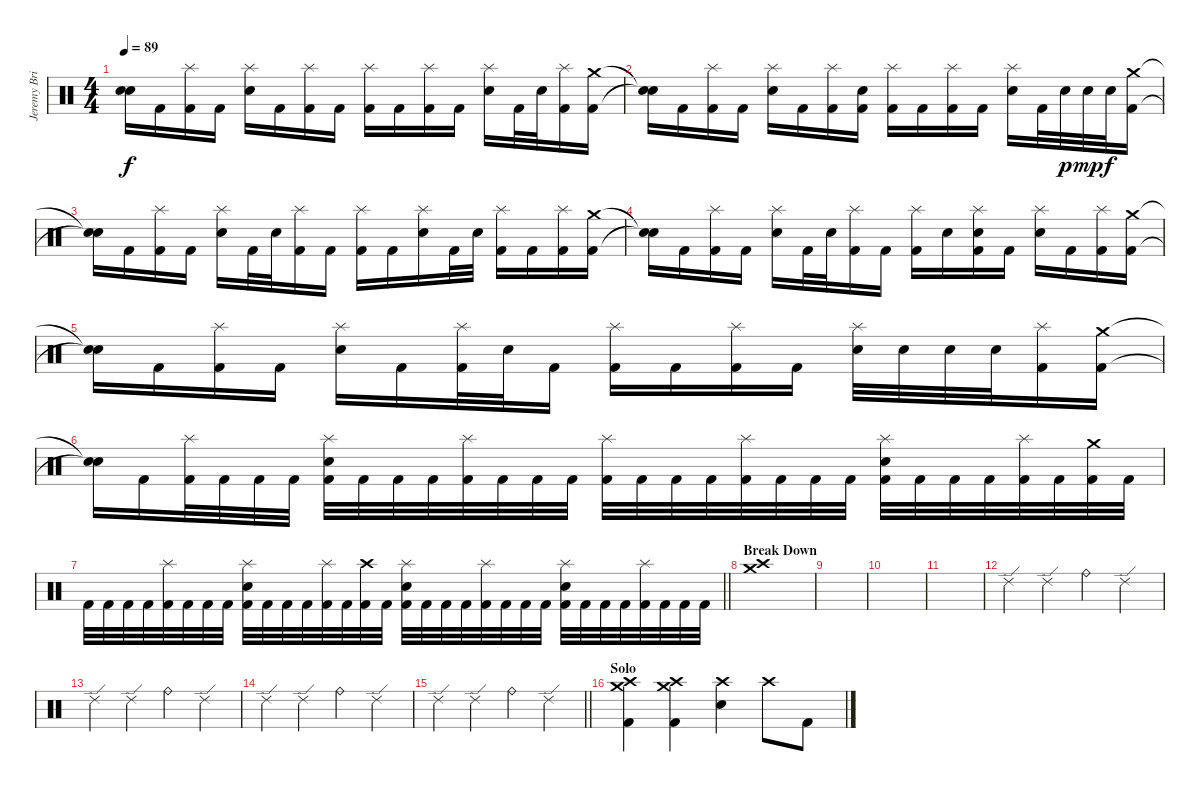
\track ("Jeremy Brian [Drums]" "Jeremy Bri") {instrument percussion}
\staff {score}
\articulation defaults
\ts (4 4)
\tempo 89
\clef neutral
\ks c
("Snare (hit)"{t} "Snare (hit)"{t}).16{dy f} "Kick (hit) 2".16 ("Splash (hit)" "Kick (hit) 2").16 "Kick (hit) 2".16 ("Splash (hit)" "Electric Snare (hit)").16 "Kick (hit) 2".16 ("Splash (hit)" "Kick (hit) 2").16 "Kick (hit) 2".16 ("Splash (hit)" "Kick (hit) 2").16 "Kick (hit) 2".16 ("Splash (hit)" "Kick (hit) 2").16 "Kick (hit) 2".16 ("Splash (hit)" "Electric Snare (hit)").16 "Kick (hit) 2".32 "Electric Snare (hit)".32 ("Splash (hit)" "Kick (hit) 2").16 ("Crash medium (hit)" "Kick (hit) 2").16 |
("Snare (hit)"{t} "Snare (hit)"{t}).16 "Kick (hit) 2".16 ("Splash (hit)" "Kick (hit) 2").16 "Kick (hit) 2".16 ("Splash (hit)" "Electric Snare (hit)").16 "Kick (hit) 2".16 ("Splash (hit)" "Kick (hit) 2").16 ("Electric Snare (hit)" "Kick (hit) 2").16 ("Splash (hit)" "Kick (hit) 2").16 "Kick (hit) 2".16 ("Splash (hit)" "Kick (hit) 2").16 "Kick (hit) 2".16 ("Splash (hit)" "Electric Snare (hit)").16 "Kick (hit) 2".32 "Electric Snare (hit)".32{dy p} "Electric Snare (hit)".32{dy mp} "Electric Snare (hit)".32{dy f} ("Crash medium (hit)" "Kick (hit) 2").16 |
("Snare (hit)"{t} "Snare (hit)"{t}).16 "Kick (hit) 2".16 ("Splash (hit)" "Kick (hit) 2").16 "Kick (hit) 2".16 ("Splash (hit)" "Electric Snare (hit)").16 "Kick (hit) 2".32 "Electric Snare (hit)".32 ("Splash (hit)" "Kick (hit) 2").16 "Kick (hit) 2".16 ("Splash (hit)" "Kick (hit) 2").16 "Kick (hit) 2".16 ("Splash (hit)" "Electric Snare (hit)").16 "Kick (hit) 2".32 "Electric Snare (hit)".32 ("Splash (hit)" "Kick (hit) 2").16 "Kick (hit) 2".16 ("Splash (hit)" "Kick (hit) 2").16 ("Crash medium (hit)" "Kick (hit) 2").16 |
("Snare (hit)"{t} "Snare (hit)"{t}).16 "Kick (hit) 2".16 ("Splash (hit)" "Kick (hit) 2").16 "Kick (hit) 2".16 ("Splash (hit)" "Electric Snare (hit)").16 "Kick (hit) 2".32 "Electric Snare (hit)".32 ("Splash (hit)" "Kick (hit) 2").16 "Kick (hit) 2".16 ("Splash (hit)" "Kick (hit) 2").16 "Electric Snare (hit)".16 ("Splash (hit)" "Electric Snare (hit)" "Kick (hit) 2").16 "Kick (hit) 2".16 ("Splash (hit)" "Electric Snare (hit)").16 "Kick (hit) 2".16 ("Splash (hit)" "Kick (hit) 2").16 ("Crash medium (hit)" "Kick (hit) 2").16 |
("Snare (hit)"{t} "Snare (hit)"{t}).16 "Kick (hit) 2".16 ("Splash (hit)" "Kick (hit) 2").16 "Kick (hit) 2".16 ("Splash (hit)" "Electric Snare (hit)").16 "Kick (hit) 2".16 ("Splash (hit)" "Kick (hit) 2").32 "Electric Snare (hit)".32 "Kick (hit) 2".16 ("Splash (hit)" "Kick (hit) 2").16 "Kick (hit) 2".16 ("Splash (hit)" "Kick (hit) 2").16 "Kick (hit) 2".16 ("Splash (hit)" "Electric Snare (hit)").32 "Electric Snare (hit)".32 "Electric Snare (hit)".32 "Electric Snare (hit)".32 ("Splash (hit)" "Kick (hit) 2").16 ("Crash medium (hit)" "Kick (hit) 2").16 |
("Snare (hit)"{t} "Snare (hit)"{t}).16 "Kick (hit) 2".16 ("Splash (hit)" "Kick (hit) 2").32 "Kick (hit) 2".32 "Kick (hit) 2".32 "Kick (hit) 2".32 ("Splash (hit)" "Electric Snare (hit)" "Kick (hit) 2").32 "Kick (hit) 2".32 "Kick (hit) 2".32 "Kick (hit) 2".32 ("Splash (hit)" "Kick (hit) 2").32 "Kick (hit) 2".32 "Kick (hit) 2".32 "Kick (hit) 2".32 ("Splash (hit)" "Kick (hit) 2").32 "Kick (hit) 2".32 "Kick (hit) 2".32 "Kick (hit) 2".32 ("Splash (hit)" "Kick (hit) 2").32 "Kick (hit) 2".32 "Kick (hit) 2".32 "Kick (hit) 2".32 ("Splash (hit)" "Electric Snare (hit)" "Kick (hit) 2").32 "Kick (hit) 2".32 "Kick (hit) 2".32 "Kick (hit) 2".32 ("Splash (hit)" "Kick (hit) 2").32 "Kick (hit) 2".32 ("Crash medium (hit)" "Kick (hit) 2").32 "Kick (hit) 2".32 |
\barLineRight lightlight "Kick (hit) 2".32 "Kick (hit) 2".32 "Kick (hit) 2".32 "Kick (hit) 2".32
("Splash (hit)" "Kick (hit) 2").32 "Kick (hit) 2".32 "Kick (hit) 2".32 "Kick (hit) 2".32 ("Splash (hit)" "Electric Snare (hit)" "Kick (hit) 2").32 "Kick (hit) 2".32 "Kick (hit) 2".32 "Kick (hit) 2".32 ("Splash (hit)" "Kick (hit) 2").32 "Kick (hit) 2".32 ("Crash high (hit)" "Kick (hit) 2").32 "Kick (hit) 2".32 ("Splash (hit)" "Electric Snare (hit)" "Kick (hit) 2").32 "Kick (hit) 2".32 "Kick (hit) 2".32 "Kick (hit) 2".32 ("Splash (hit)" "Kick (hit) 2").32 "Kick (hit) 2".32 "Kick (hit) 2".32 "Kick (hit) 2".32 ("Splash (hit)" "Electric Snare (hit)" "Kick (hit) 2").32 "Kick (hit) 2".32 "Kick (hit) 2".32 "Kick (hit) 2".32 ("Splash (hit)" "Kick (hit) 2").32 "Kick (hit) 2".32 "Kick (hit) 2".32 "Kick (hit) 2".32 |
\section ("" "Break Down")
("Crash high (hit)" "Crash medium (hit)").1 |
|
|
|
"Ride (edge) 2".4{volume 11 balance 15} "Ride (edge) 2".4 "Ride (bell)".4 "Ride (edge) 2".4 |
"Ride (edge) 2".4 "Ride (edge) 2".4 "Ride (bell)".4 "Ride (edge) 2".4 |
"Ride (edge) 2".4 "Ride (edge) 2".4 "Ride (bell)".4 "Ride (edge) 2".4 |
\barLineRight lightlight "Ride (edge) 2".4 "Ride (edge) 2".4 "Ride (bell)".4 "Ride (edge) 2".4
|
\section ("" "Solo")
("Crash high (hit)" "Crash medium (hit)" "Kick (hit) 2").4{volume 16 balance 8} ("Crash high (hit)" "Crash medium (hit)" "Kick (hit) 2").4 ("Crash high (hit)" "Electric Snare (hit)").4 "Crash high (hit)".8 "Kick (hit) 2".8
